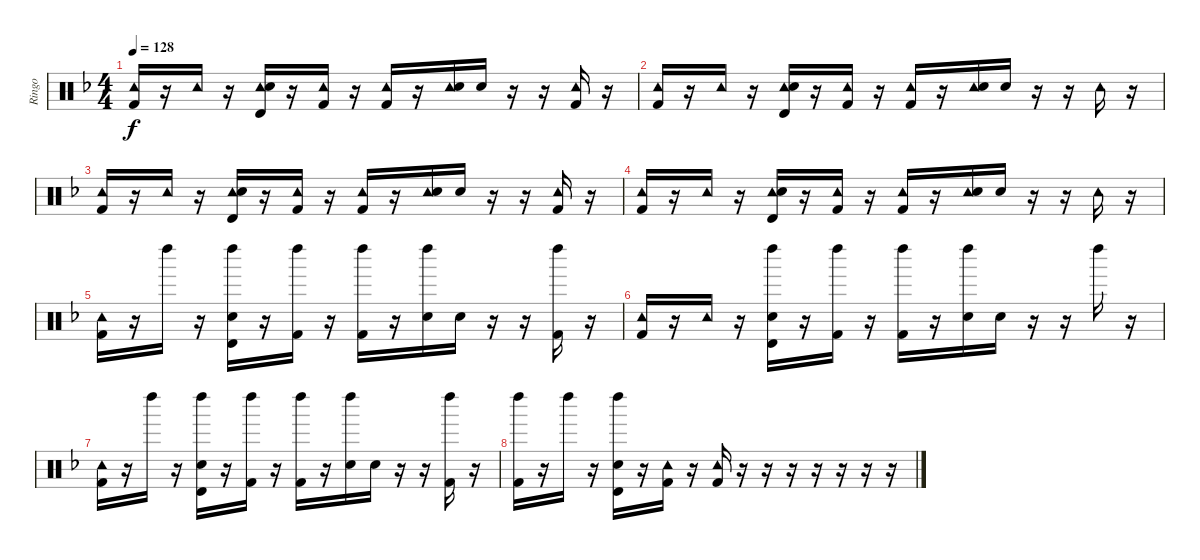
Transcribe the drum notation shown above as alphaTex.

\track ("Ringo" "Ringo") {instrument percussion}
\staff {score}
\articulation defaults
\ts (4 4)
\tempo 128
\clef neutral
\ks f
("Tambourine (hit)" "Kick (hit) 2").16{dy f} r.16 "Tambourine (hit)".16 r.16 ("Tambourine (hit)" "Timbale high (hit)" "Electric Snare (hit)").16 r.16 ("Tambourine (hit)" "Kick (hit) 2").16 r.16 ("Tambourine (hit)" "Kick (hit) 2").16 r.16 ("Tambourine (hit)" "Electric Snare (hit)").16 "Electric Snare (hit)".16 r.16 r.16 ("Tambourine (hit)" "Kick (hit) 2").16 r.16 |
("Tambourine (hit)" "Kick (hit) 2").16 r.16 "Tambourine (hit)".16 r.16 ("Tambourine (hit)" "Timbale high (hit)" "Electric Snare (hit)").16 r.16 ("Tambourine (hit)" "Kick (hit) 2").16 r.16 ("Tambourine (hit)" "Kick (hit) 2").16 r.16 ("Tambourine (hit)" "Electric Snare (hit)").16 "Electric Snare (hit)".16 r.16 r.16 "Tambourine (hit)".16 r.16 |
("Tambourine (hit)" "Kick (hit) 2").16 r.16 "Tambourine (hit)".16 r.16 ("Tambourine (hit)" "Timbale high (hit)" "Electric Snare (hit)").16 r.16 ("Tambourine (hit)" "Kick (hit) 2").16 r.16 ("Tambourine (hit)" "Kick (hit) 2").16 r.16 ("Tambourine (hit)" "Electric Snare (hit)").16 "Electric Snare (hit)".16 r.16 r.16 ("Tambourine (hit)" "Kick (hit) 2").16 r.16 |
("Tambourine (hit)" "Kick (hit) 2").16 r.16 "Tambourine (hit)".16 r.16 ("Tambourine (hit)" "Timbale high (hit)" "Electric Snare (hit)").16 r.16 ("Tambourine (hit)" "Kick (hit) 2").16 r.16 ("Tambourine (hit)" "Kick (hit) 2").16 r.16 ("Tambourine (hit)" "Electric Snare (hit)").16 "Electric Snare (hit)".16 r.16 r.16 "Tambourine (hit)".16 r.16 |
("Tambourine (hit)" "Kick (hit) 2").16 r.16 "Left Maraca (hit)".16 r.16 ("Left Maraca (hit)" "Timbale high (hit)" "Electric Snare (hit)").16 r.16 ("Left Maraca (hit)" "Kick (hit) 2").16 r.16 ("Left Maraca (hit)" "Kick (hit) 2").16 r.16 ("Left Maraca (hit)" "Electric Snare (hit)").16 "Electric Snare (hit)".16 r.16 r.16 ("Left Maraca (hit)" "Kick (hit) 2").16 r.16 |
("Tambourine (hit)" "Kick (hit) 2").16 r.16 "Tambourine (hit)".16 r.16 ("Left Maraca (hit)" "Timbale high (hit)" "Electric Snare (hit)").16 r.16 ("Left Maraca (hit)" "Kick (hit) 2").16 r.16 ("Left Maraca (hit)" "Kick (hit) 2").16 r.16 ("Left Maraca (hit)" "Electric Snare (hit)").16 "Electric Snare (hit)".16 r.16 r.16 "Left Maraca (hit)".16 r.16 |
("Tambourine (hit)" "Kick (hit) 2").16 r.16 "Left Maraca (hit)".16 r.16 ("Left Maraca (hit)" "Timbale high (hit)" "Electric Snare (hit)").16 r.16 ("Left Maraca (hit)" "Kick (hit) 2").16 r.16 ("Left Maraca (hit)" "Kick (hit) 2").16 r.16 ("Left Maraca (hit)" "Electric Snare (hit)").16 "Electric Snare (hit)".16 r.16 r.16 ("Left Maraca (hit)" "Kick (hit) 2").16 r.16 |
("Left Maraca (hit)" "Kick (hit) 2").16 r.16 "Left Maraca (hit)".16 r.16 ("Left Maraca (hit)" "Timbale high (hit)" "Electric Snare (hit)").16 r.16 ("Tambourine (hit)" "Kick (hit) 2").16 r.16 ("Tambourine (hit)" "Kick (hit) 2").16 r.16 r.16 r.16 r.16 r.16 r.16 r.16
